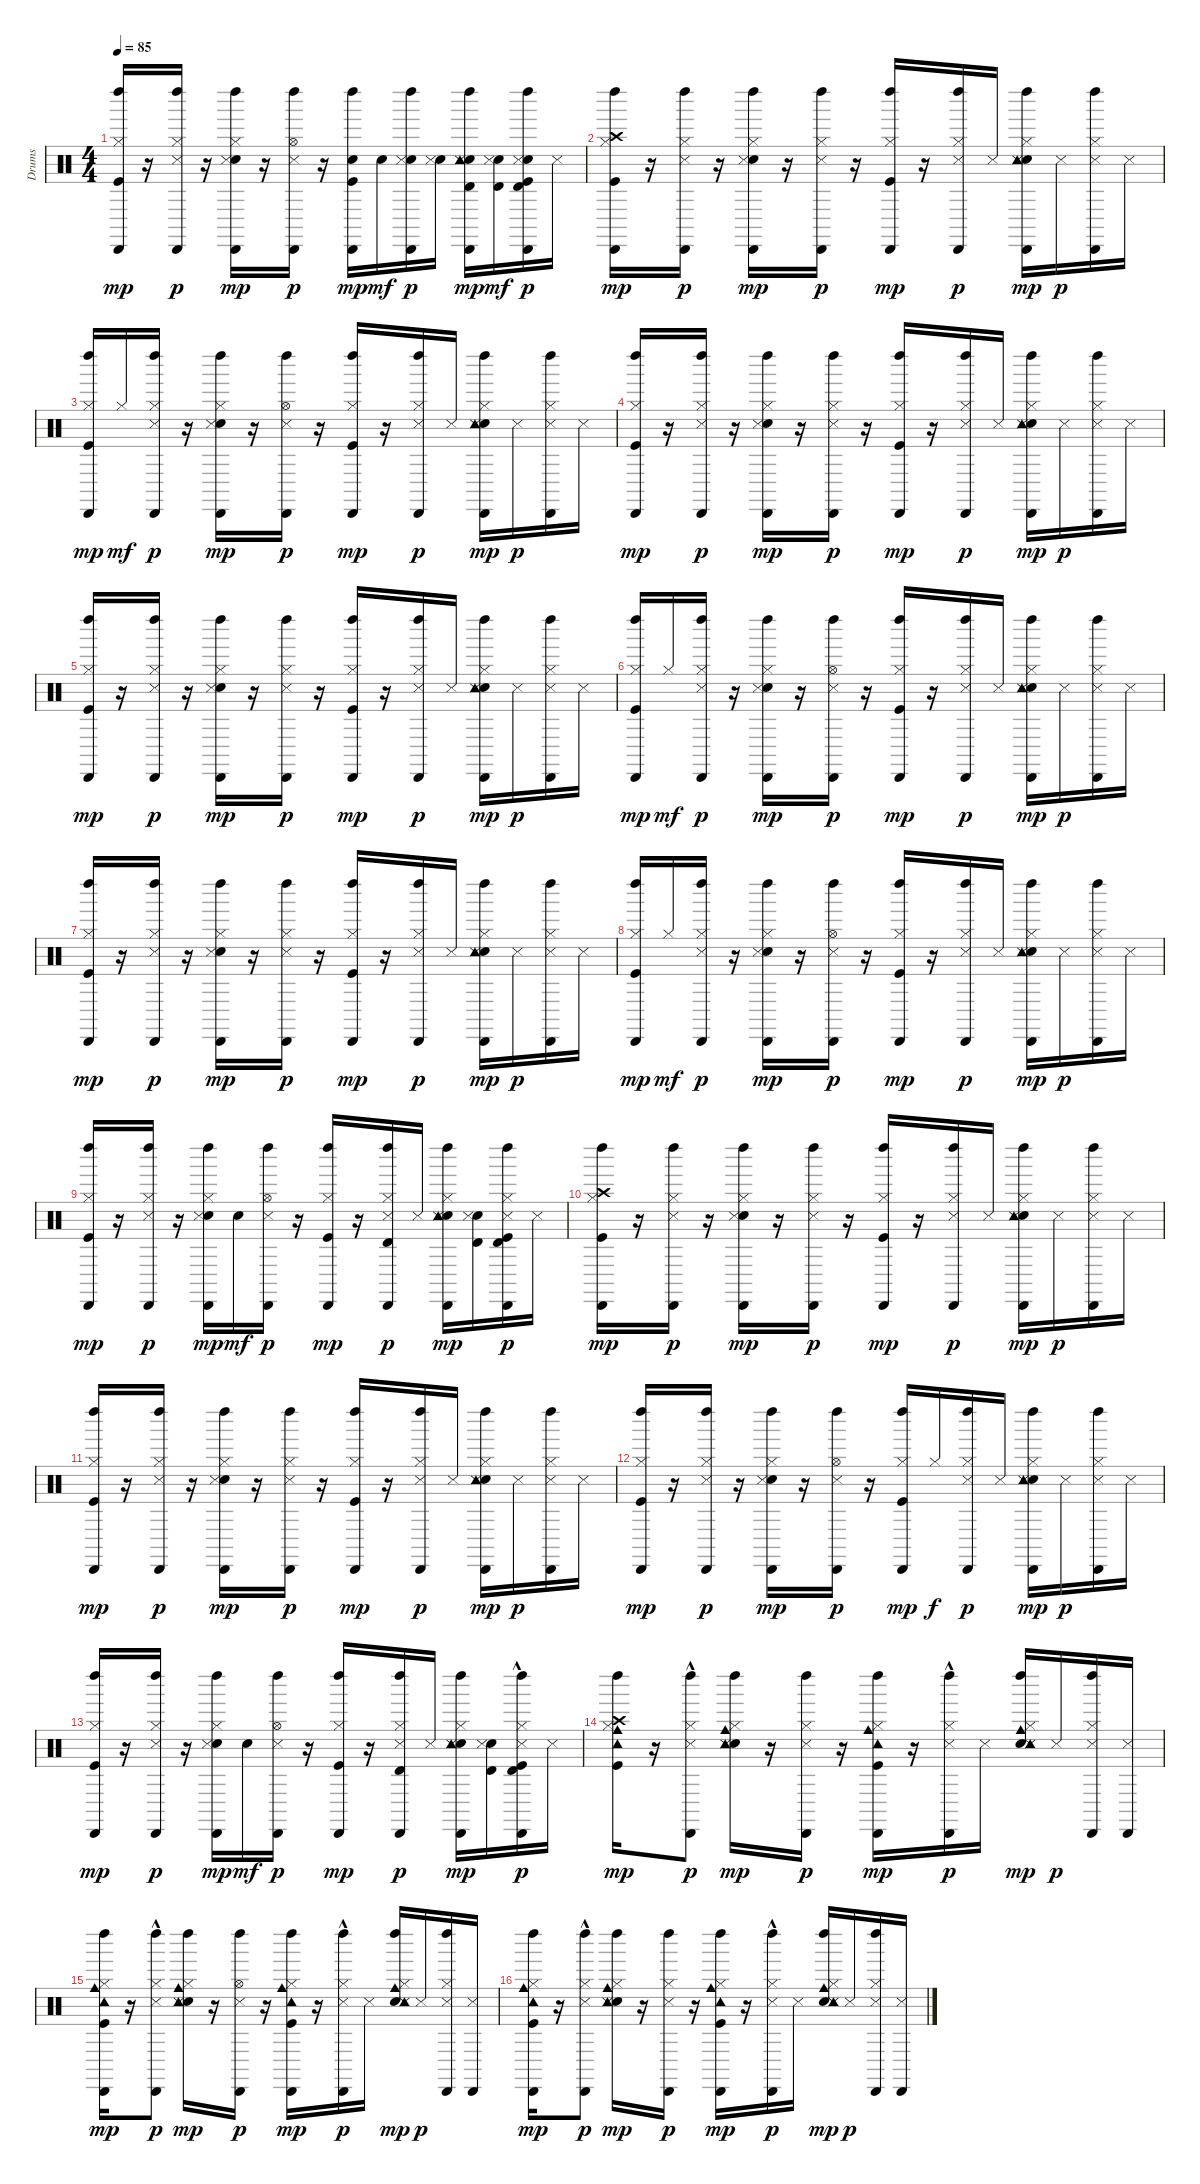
\track ("Drums" "Drums") {instrument percussion}
\staff {score}
\articulation defaults
\ts (4 4)
\tempo 85
\clef neutral
\ks c
("Kick (hit)" "Hi-Hat (closed)" "Left Maraca (hit)" "Cabasa (hit)").16{dy mp} r.16 ("Hi-Hat (closed)" "Snare (side stick) 3" "Left Maraca (hit)" "Cabasa (hit)").16{dy p} r.16 ("Snare (hit) 2" "Hi-Hat (closed)" "Snare (side stick) 3" "Left Maraca (hit)" "Cabasa (hit)").16{dy mp} r.16 ("Hi-Hat (open)" "Snare (side stick) 3" "Left Maraca (hit)" "Cabasa (hit)").16{dy p} r.16 ("Kick (hit)" "Snare (hit) 2" "Left Maraca (hit)" "Cabasa (hit)").16{dy mp} "Snare (hit) 2".16{dy mf} ("Snare (hit) 2" "Snare (side stick) 3" "Left Maraca (hit)" "Cabasa (hit)").16{dy p} ("Snare (hit) 2" "Snare (side stick) 3").16 ("Snare (hit) 2" "Snare (side stick) 3" "Timbale high (hit)" "Tambourine (hit)" "Left Maraca (hit)" "Cabasa (hit)").16{dy mp} ("Snare (hit) 2" "Snare (side stick) 3" "Timbale high (hit)").16{dy mf} ("Kick (hit)" "Snare (hit) 2" "Snare (side stick) 3" "Timbale high (hit)" "Left Maraca (hit)" "Cabasa (hit)").16{dy p} "Snare (side stick) 3".16 |
("Kick (hit)" "Hi-Hat (closed)" "Crash high (hit)" "Left Maraca (hit)" "Cabasa (hit)").16{dy mp} r.16 ("Hi-Hat (closed)" "Snare (side stick) 3" "Left Maraca (hit)" "Cabasa (hit)").16{dy p} r.16 ("Snare (hit) 2" "Hi-Hat (closed)" "Snare (side stick) 3" "Left Maraca (hit)" "Cabasa (hit)").16{dy mp} r.16 ("Hi-Hat (closed)" "Snare (side stick) 3" "Left Maraca (hit)" "Cabasa (hit)").16{dy p} r.16 ("Kick (hit)" "Hi-Hat (closed)" "Left Maraca (hit)" "Cabasa (hit)").16{dy mp} r.16 ("Hi-Hat (closed)" "Snare (side stick) 3" "Left Maraca (hit)" "Cabasa (hit)").16{dy p} "Snare (side stick) 3".16 ("Snare (hit) 2" "Hi-Hat (closed)" "Snare (side stick) 3" "Tambourine (hit)" "Left Maraca (hit)" "Cabasa (hit)").16{dy mp} "Snare (side stick) 3".16{dy p} ("Hi-Hat (closed)" "Snare (side stick) 3" "Left Maraca (hit)" "Cabasa (hit)").16 "Snare (side stick) 3".16 |
("Kick (hit)" "Hi-Hat (closed)" "Left Maraca (hit)" "Cabasa (hit)").16{dy mp} "Hi-Hat (closed)".16{dy mf} ("Hi-Hat (closed)" "Snare (side stick) 3" "Left Maraca (hit)" "Cabasa (hit)").16{dy p} r.16 ("Snare (hit) 2" "Hi-Hat (closed)" "Snare (side stick) 3" "Left Maraca (hit)" "Cabasa (hit)").16{dy mp} r.16 ("Hi-Hat (open)" "Snare (side stick) 3" "Left Maraca (hit)" "Cabasa (hit)").16{dy p} r.16 ("Kick (hit)" "Hi-Hat (closed)" "Left Maraca (hit)" "Cabasa (hit)").16{dy mp} r.16 ("Hi-Hat (closed)" "Snare (side stick) 3" "Left Maraca (hit)" "Cabasa (hit)").16{dy p} "Snare (side stick) 3".16 ("Snare (hit) 2" "Hi-Hat (closed)" "Snare (side stick) 3" "Tambourine (hit)" "Left Maraca (hit)" "Cabasa (hit)").16{dy mp} "Snare (side stick) 3".16{dy p} ("Hi-Hat (closed)" "Snare (side stick) 3" "Left Maraca (hit)" "Cabasa (hit)").16 "Snare (side stick) 3".16 |
("Kick (hit)" "Hi-Hat (closed)" "Left Maraca (hit)" "Cabasa (hit)").16{dy mp} r.16 ("Hi-Hat (closed)" "Snare (side stick) 3" "Left Maraca (hit)" "Cabasa (hit)").16{dy p} r.16 ("Snare (hit) 2" "Hi-Hat (closed)" "Snare (side stick) 3" "Left Maraca (hit)" "Cabasa (hit)").16{dy mp} r.16 ("Hi-Hat (closed)" "Snare (side stick) 3" "Left Maraca (hit)" "Cabasa (hit)").16{dy p} r.16 ("Kick (hit)" "Hi-Hat (closed)" "Left Maraca (hit)" "Cabasa (hit)").16{dy mp} r.16 ("Hi-Hat (closed)" "Snare (side stick) 3" "Left Maraca (hit)" "Cabasa (hit)").16{dy p} "Snare (side stick) 3".16 ("Snare (hit) 2" "Hi-Hat (closed)" "Snare (side stick) 3" "Tambourine (hit)" "Left Maraca (hit)" "Cabasa (hit)").16{dy mp} "Snare (side stick) 3".16{dy p} ("Hi-Hat (closed)" "Snare (side stick) 3" "Left Maraca (hit)" "Cabasa (hit)").16 "Snare (side stick) 3".16 |
("Kick (hit)" "Hi-Hat (closed)" "Left Maraca (hit)" "Cabasa (hit)").16{dy mp} r.16 ("Hi-Hat (closed)" "Snare (side stick) 3" "Left Maraca (hit)" "Cabasa (hit)").16{dy p} r.16 ("Snare (hit) 2" "Hi-Hat (closed)" "Snare (side stick) 3" "Left Maraca (hit)" "Cabasa (hit)").16{dy mp} r.16 ("Hi-Hat (closed)" "Snare (side stick) 3" "Left Maraca (hit)" "Cabasa (hit)").16{dy p} r.16 ("Kick (hit)" "Hi-Hat (closed)" "Left Maraca (hit)" "Cabasa (hit)").16{dy mp} r.16 ("Hi-Hat (closed)" "Snare (side stick) 3" "Left Maraca (hit)" "Cabasa (hit)").16{dy p} "Snare (side stick) 3".16 ("Snare (hit) 2" "Hi-Hat (closed)" "Snare (side stick) 3" "Tambourine (hit)" "Left Maraca (hit)" "Cabasa (hit)").16{dy mp} "Snare (side stick) 3".16{dy p} ("Hi-Hat (closed)" "Snare (side stick) 3" "Left Maraca (hit)" "Cabasa (hit)").16 "Snare (side stick) 3".16 |
("Kick (hit)" "Hi-Hat (closed)" "Left Maraca (hit)" "Cabasa (hit)").16{dy mp} "Hi-Hat (closed)".16{dy mf} ("Hi-Hat (closed)" "Snare (side stick) 3" "Left Maraca (hit)" "Cabasa (hit)").16{dy p} r.16 ("Snare (hit) 2" "Hi-Hat (closed)" "Snare (side stick) 3" "Left Maraca (hit)" "Cabasa (hit)").16{dy mp} r.16 ("Hi-Hat (open)" "Snare (side stick) 3" "Left Maraca (hit)" "Cabasa (hit)").16{dy p} r.16 ("Kick (hit)" "Hi-Hat (closed)" "Left Maraca (hit)" "Cabasa (hit)").16{dy mp} r.16 ("Hi-Hat (closed)" "Snare (side stick) 3" "Left Maraca (hit)" "Cabasa (hit)").16{dy p} "Snare (side stick) 3".16 ("Snare (hit) 2" "Hi-Hat (closed)" "Snare (side stick) 3" "Tambourine (hit)" "Left Maraca (hit)" "Cabasa (hit)").16{dy mp} "Snare (side stick) 3".16{dy p} ("Hi-Hat (closed)" "Snare (side stick) 3" "Left Maraca (hit)" "Cabasa (hit)").16 "Snare (side stick) 3".16 |
("Kick (hit)" "Hi-Hat (closed)" "Left Maraca (hit)" "Cabasa (hit)").16{dy mp} r.16 ("Hi-Hat (closed)" "Snare (side stick) 3" "Left Maraca (hit)" "Cabasa (hit)").16{dy p} r.16 ("Snare (hit) 2" "Hi-Hat (closed)" "Snare (side stick) 3" "Left Maraca (hit)" "Cabasa (hit)").16{dy mp} r.16 ("Hi-Hat (closed)" "Snare (side stick) 3" "Left Maraca (hit)" "Cabasa (hit)").16{dy p} r.16 ("Kick (hit)" "Hi-Hat (closed)" "Left Maraca (hit)" "Cabasa (hit)").16{dy mp} r.16 ("Hi-Hat (closed)" "Snare (side stick) 3" "Left Maraca (hit)" "Cabasa (hit)").16{dy p} "Snare (side stick) 3".16 ("Snare (hit) 2" "Hi-Hat (closed)" "Snare (side stick) 3" "Tambourine (hit)" "Left Maraca (hit)" "Cabasa (hit)").16{dy mp} "Snare (side stick) 3".16{dy p} ("Hi-Hat (closed)" "Snare (side stick) 3" "Left Maraca (hit)" "Cabasa (hit)").16 "Snare (side stick) 3".16 |
("Kick (hit)" "Hi-Hat (closed)" "Left Maraca (hit)" "Cabasa (hit)").16{dy mp} "Hi-Hat (closed)".16{dy mf} ("Hi-Hat (closed)" "Snare (side stick) 3" "Left Maraca (hit)" "Cabasa (hit)").16{dy p} r.16 ("Snare (hit) 2" "Hi-Hat (closed)" "Snare (side stick) 3" "Left Maraca (hit)" "Cabasa (hit)").16{dy mp} r.16 ("Hi-Hat (open)" "Snare (side stick) 3" "Left Maraca (hit)" "Cabasa (hit)").16{dy p} r.16 ("Kick (hit)" "Hi-Hat (closed)" "Left Maraca (hit)" "Cabasa (hit)").16{dy mp} r.16 ("Hi-Hat (closed)" "Snare (side stick) 3" "Left Maraca (hit)" "Cabasa (hit)").16{dy p} "Snare (side stick) 3".16 ("Snare (hit) 2" "Hi-Hat (closed)" "Snare (side stick) 3" "Tambourine (hit)" "Left Maraca (hit)" "Cabasa (hit)").16{dy mp} "Snare (side stick) 3".16{dy p} ("Hi-Hat (closed)" "Snare (side stick) 3" "Left Maraca (hit)" "Cabasa (hit)").16 "Snare (side stick) 3".16 |
("Kick (hit)" "Hi-Hat (closed)" "Left Maraca (hit)" "Cabasa (hit)").16{dy mp} r.16 ("Hi-Hat (closed)" "Snare (side stick) 3" "Left Maraca (hit)" "Cabasa (hit)").16{dy p} r.16 ("Snare (hit) 2" "Hi-Hat (closed)" "Snare (side stick) 3" "Left Maraca (hit)" "Cabasa (hit)").16{dy mp} "Snare (hit) 2".16{dy mf} ("Hi-Hat (open)" "Snare (side stick) 3" "Left Maraca (hit)" "Cabasa (hit)").16{dy p} r.16 ("Kick (hit)" "Hi-Hat (closed)" "Left Maraca (hit)" "Cabasa (hit)").16{dy mp} r.16 ("Hi-Hat (closed)" "Snare (side stick) 3" "Timbale high (hit)" "Left Maraca (hit)" "Cabasa (hit)").16{dy p} "Snare (side stick) 3".16 ("Snare (hit) 2" "Hi-Hat (closed)" "Snare (side stick) 3" "Tambourine (hit)" "Left Maraca (hit)" "Cabasa (hit)").16{dy mp} ("Snare (hit) 2" "Snare (side stick) 3" "Timbale high (hit)").16 ("Kick (hit)" "Hi-Hat (closed)" "Snare (side stick) 3" "Timbale high (hit)" "Left Maraca (hit)" "Cabasa (hit)").16{dy p} "Snare (side stick) 3".16 |
("Kick (hit)" "Hi-Hat (closed)" "Crash high (hit)" "Left Maraca (hit)" "Cabasa (hit)").16{dy mp} r.16 ("Hi-Hat (closed)" "Snare (side stick) 3" "Left Maraca (hit)" "Cabasa (hit)").16{dy p} r.16 ("Snare (hit) 2" "Hi-Hat (closed)" "Snare (side stick) 3" "Left Maraca (hit)" "Cabasa (hit)").16{dy mp} r.16 ("Hi-Hat (closed)" "Snare (side stick) 3" "Left Maraca (hit)" "Cabasa (hit)").16{dy p} r.16 ("Kick (hit)" "Hi-Hat (closed)" "Left Maraca (hit)" "Cabasa (hit)").16{dy mp} r.16 ("Hi-Hat (closed)" "Snare (side stick) 3" "Left Maraca (hit)" "Cabasa (hit)").16{dy p} "Snare (side stick) 3".16 ("Snare (hit) 2" "Hi-Hat (closed)" "Snare (side stick) 3" "Tambourine (hit)" "Left Maraca (hit)" "Cabasa (hit)").16{dy mp} "Snare (side stick) 3".16{dy p} ("Hi-Hat (closed)" "Snare (side stick) 3" "Left Maraca (hit)" "Cabasa (hit)").16 "Snare (side stick) 3".16 |
("Kick (hit)" "Hi-Hat (closed)" "Left Maraca (hit)" "Cabasa (hit)").16{dy mp} r.16 ("Hi-Hat (closed)" "Snare (side stick) 3" "Left Maraca (hit)" "Cabasa (hit)").16{dy p} r.16 ("Snare (hit) 2" "Hi-Hat (closed)" "Snare (side stick) 3" "Left Maraca (hit)" "Cabasa (hit)").16{dy mp} r.16 ("Hi-Hat (closed)" "Snare (side stick) 3" "Left Maraca (hit)" "Cabasa (hit)").16{dy p} r.16 ("Kick (hit)" "Hi-Hat (closed)" "Left Maraca (hit)" "Cabasa (hit)").16{dy mp} r.16 ("Hi-Hat (closed)" "Snare (side stick) 3" "Left Maraca (hit)" "Cabasa (hit)").16{dy p} "Snare (side stick) 3".16 ("Snare (hit) 2" "Hi-Hat (closed)" "Snare (side stick) 3" "Tambourine (hit)" "Left Maraca (hit)" "Cabasa (hit)").16{dy mp} "Snare (side stick) 3".16{dy p} ("Hi-Hat (closed)" "Snare (side stick) 3" "Left Maraca (hit)" "Cabasa (hit)").16 "Snare (side stick) 3".16 |
("Kick (hit)" "Hi-Hat (closed)" "Left Maraca (hit)" "Cabasa (hit)").16{dy mp} r.16 ("Hi-Hat (closed)" "Snare (side stick) 3" "Left Maraca (hit)" "Cabasa (hit)").16{dy p} r.16 ("Snare (hit) 2" "Hi-Hat (closed)" "Snare (side stick) 3" "Left Maraca (hit)" "Cabasa (hit)").16{dy mp} r.16 ("Hi-Hat (open)" "Snare (side stick) 3" "Left Maraca (hit)" "Cabasa (hit)").16{dy p} r.16 ("Kick (hit)" "Hi-Hat (closed)" "Left Maraca (hit)" "Cabasa (hit)").16{dy mp} "Hi-Hat (closed)".16{dy f} ("Hi-Hat (closed)" "Snare (side stick) 3" "Left Maraca (hit)" "Cabasa (hit)").16{dy p} "Snare (side stick) 3".16 ("Snare (hit) 2" "Hi-Hat (closed)" "Snare (side stick) 3" "Tambourine (hit)" "Left Maraca (hit)" "Cabasa (hit)").16{dy mp} "Snare (side stick) 3".16{dy p} ("Hi-Hat (closed)" "Snare (side stick) 3" "Left Maraca (hit)" "Cabasa (hit)").16 "Snare (side stick) 3".16 |
("Kick (hit)" "Hi-Hat (closed)" "Left Maraca (hit)" "Cabasa (hit)").16{dy mp} r.16 ("Hi-Hat (closed)" "Snare (side stick) 3" "Left Maraca (hit)" "Cabasa (hit)").16{dy p} r.16 ("Snare (hit) 2" "Hi-Hat (closed)" "Snare (side stick) 3" "Left Maraca (hit)" "Cabasa (hit)").16{dy mp} "Snare (hit) 2".16{dy mf} ("Hi-Hat (open)" "Snare (side stick) 3" "Left Maraca (hit)" "Cabasa (hit)").16{dy p} r.16 ("Kick (hit)" "Hi-Hat (closed)" "Left Maraca (hit)" "Cabasa (hit)").16{dy mp} r.16 ("Hi-Hat (closed)" "Snare (side stick) 3" "Timbale high (hit)" "Left Maraca (hit)" "Cabasa (hit)").16{dy p} "Snare (side stick) 3".16 ("Snare (hit) 2" "Hi-Hat (closed)" "Snare (side stick) 3" "Tambourine (hit)" "Left Maraca (hit)" "Cabasa (hit)").16{dy mp} ("Snare (hit) 2" "Snare (side stick) 3" "Timbale high (hit)").16 ("Kick (hit)" "Hi-Hat (closed)" "Snare (side stick) 3" "Timbale high (hit)" "Left Maraca (hit)" "Cabasa (hit)"{hac}).16{dy p} "Snare (side stick) 3".16 |
("Kick (hit)" "Hi-Hat (closed)" "Cowbell medium (hit)" "Crash high (hit)" "Tambourine (hit)" "Left Maraca (hit)").16{dy mp} r.16 ("Hi-Hat (closed)" "Snare (side stick) 3" "Left Maraca (hit)" "Cabasa (hit)"{hac}).8{dy p} ("Snare (hit) 2" "Hi-Hat (closed)" "Snare (side stick) 3" "Cowbell medium (hit)" "Tambourine (hit)" "Left Maraca (hit)").16{dy mp} r.16 ("Hi-Hat (closed)" "Snare (side stick) 3" "Left Maraca (hit)" "Cabasa (hit)").16{dy p} r.16 ("Kick (hit)" "Hi-Hat (closed)" "Cowbell medium (hit)" "Tambourine (hit)" "Left Maraca (hit)" "Cabasa (hit)").16{dy mp} r.16 ("Hi-Hat (closed)" "Snare (side stick) 3" "Left Maraca (hit)" "Cabasa (hit)"{hac}).16{dy p} "Snare (side stick) 3".16 ("Snare (hit) 2" "Hi-Hat (closed)" "Snare (side stick) 3" "Cowbell medium (hit)" "Tambourine (hit)" "Left Maraca (hit)").16{dy mp} "Snare (side stick) 3".16{dy p} ("Hi-Hat (closed)" "Snare (side stick) 3" "Left Maraca (hit)" "Cabasa (hit)").16 ("Snare (side stick) 3" "Cabasa (hit)").16 |
("Kick (hit)" "Hi-Hat (closed)" "Cowbell medium (hit)" "Tambourine (hit)" "Left Maraca (hit)" "Cabasa (hit)").16{dy mp} r.16 ("Hi-Hat (closed)" "Snare (side stick) 3" "Left Maraca (hit)" "Cabasa (hit)"{hac}).8{dy p} ("Snare (hit) 2" "Hi-Hat (closed)" "Snare (side stick) 3" "Cowbell medium (hit)" "Tambourine (hit)" "Left Maraca (hit)").16{dy mp} r.16 ("Hi-Hat (open)" "Snare (side stick) 3" "Left Maraca (hit)" "Cabasa (hit)").16{dy p} r.16 ("Kick (hit)" "Hi-Hat (closed)" "Cowbell medium (hit)" "Tambourine (hit)" "Left Maraca (hit)" "Cabasa (hit)").16{dy mp} r.16 ("Hi-Hat (closed)" "Snare (side stick) 3" "Left Maraca (hit)" "Cabasa (hit)"{hac}).16{dy p} "Snare (side stick) 3".16 ("Snare (hit) 2" "Hi-Hat (closed)" "Snare (side stick) 3" "Cowbell medium (hit)" "Tambourine (hit)" "Left Maraca (hit)").16{dy mp} "Snare (side stick) 3".16{dy p} ("Hi-Hat (closed)" "Snare (side stick) 3" "Left Maraca (hit)" "Cabasa (hit)").16 ("Snare (side stick) 3" "Cabasa (hit)").16 |
("Kick (hit)" "Hi-Hat (closed)" "Cowbell medium (hit)" "Tambourine (hit)" "Left Maraca (hit)" "Cabasa (hit)").16{dy mp} r.16 ("Hi-Hat (closed)" "Snare (side stick) 3" "Left Maraca (hit)" "Cabasa (hit)"{hac}).8{dy p} ("Snare (hit) 2" "Hi-Hat (closed)" "Snare (side stick) 3" "Cowbell medium (hit)" "Tambourine (hit)" "Left Maraca (hit)").16{dy mp} r.16 ("Hi-Hat (closed)" "Snare (side stick) 3" "Left Maraca (hit)" "Cabasa (hit)").16{dy p} r.16 ("Kick (hit)" "Hi-Hat (closed)" "Cowbell medium (hit)" "Tambourine (hit)" "Left Maraca (hit)" "Cabasa (hit)").16{dy mp} r.16 ("Hi-Hat (closed)" "Snare (side stick) 3" "Left Maraca (hit)" "Cabasa (hit)"{hac}).16{dy p} "Snare (side stick) 3".16 ("Snare (hit) 2" "Hi-Hat (closed)" "Snare (side stick) 3" "Cowbell medium (hit)" "Tambourine (hit)" "Left Maraca (hit)").16{dy mp} "Snare (side stick) 3".16{dy p} ("Hi-Hat (closed)" "Snare (side stick) 3" "Left Maraca (hit)" "Cabasa (hit)").16 ("Snare (side stick) 3" "Cabasa (hit)").16
